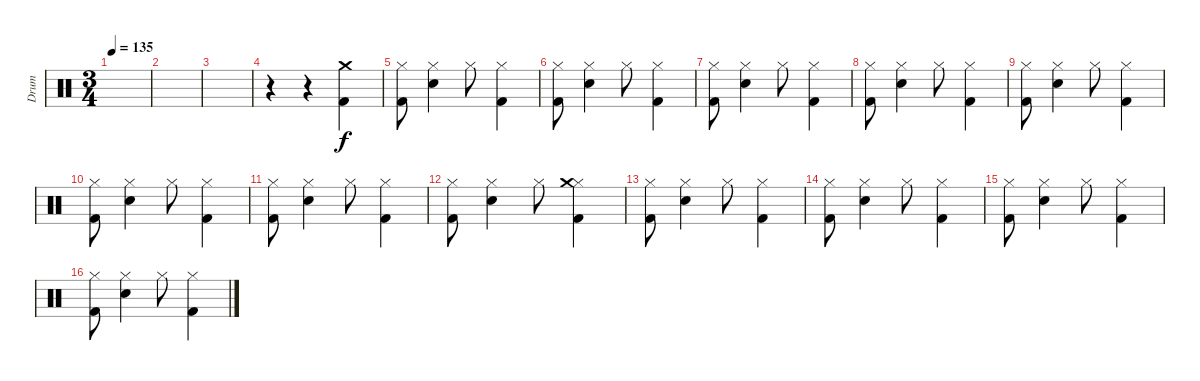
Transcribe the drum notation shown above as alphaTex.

\track ("Drum" "Drum") {instrument percussion}
\staff {score}
\articulation defaults
\ts (3 4)
\tempo 135
\clef neutral
\ks c
|
|
|
r.4 r.4 ("Crash medium (hit)" "Kick (hit) 2").4 |
("Hi-Hat (closed)" "Kick (hit) 2").8 ("Hi-Hat (closed)" "Snare (hit) 2").4 "Hi-Hat (closed)".8 ("Hi-Hat (closed)" "Kick (hit) 2").4 |
("Hi-Hat (closed)" "Kick (hit) 2").8 ("Hi-Hat (closed)" "Snare (hit) 2").4 "Hi-Hat (closed)".8 ("Hi-Hat (closed)" "Kick (hit) 2").4 |
("Hi-Hat (closed)" "Kick (hit) 2").8 ("Hi-Hat (closed)" "Snare (hit) 2").4 "Hi-Hat (closed)".8 ("Hi-Hat (closed)" "Kick (hit) 2").4 |
("Hi-Hat (closed)" "Kick (hit) 2").8 ("Hi-Hat (closed)" "Snare (hit) 2").4 "Hi-Hat (closed)".8 ("Hi-Hat (closed)" "Kick (hit) 2").4 |
("Hi-Hat (closed)" "Kick (hit) 2").8 ("Hi-Hat (closed)" "Snare (hit) 2").4 "Hi-Hat (closed)".8 ("Hi-Hat (closed)" "Kick (hit) 2").4 |
("Hi-Hat (closed)" "Kick (hit) 2").8 ("Hi-Hat (closed)" "Snare (hit) 2").4 "Hi-Hat (closed)".8 ("Hi-Hat (closed)" "Kick (hit) 2").4 |
("Hi-Hat (closed)" "Kick (hit) 2").8 ("Hi-Hat (closed)" "Snare (hit) 2").4 "Hi-Hat (closed)".8 ("Hi-Hat (closed)" "Kick (hit) 2").4 |
("Hi-Hat (closed)" "Kick (hit) 2").8 ("Hi-Hat (closed)" "Snare (hit) 2").4 "Hi-Hat (closed)".8 ("Hi-Hat (closed)" "Crash medium (hit)" "Kick (hit) 2").4 |
("Hi-Hat (closed)" "Kick (hit) 2").8 ("Hi-Hat (closed)" "Snare (hit) 2").4 "Hi-Hat (closed)".8 ("Hi-Hat (closed)" "Kick (hit) 2").4 |
("Hi-Hat (closed)" "Kick (hit) 2").8 ("Hi-Hat (closed)" "Snare (hit) 2").4 "Hi-Hat (closed)".8 ("Hi-Hat (closed)" "Kick (hit) 2").4 |
("Hi-Hat (closed)" "Kick (hit) 2").8 ("Hi-Hat (closed)" "Snare (hit) 2").4 "Hi-Hat (closed)".8 ("Hi-Hat (closed)" "Kick (hit) 2").4 |
("Hi-Hat (closed)" "Kick (hit) 2").8 ("Hi-Hat (closed)" "Snare (hit) 2").4 "Hi-Hat (closed)".8 ("Hi-Hat (closed)" "Kick (hit) 2").4
